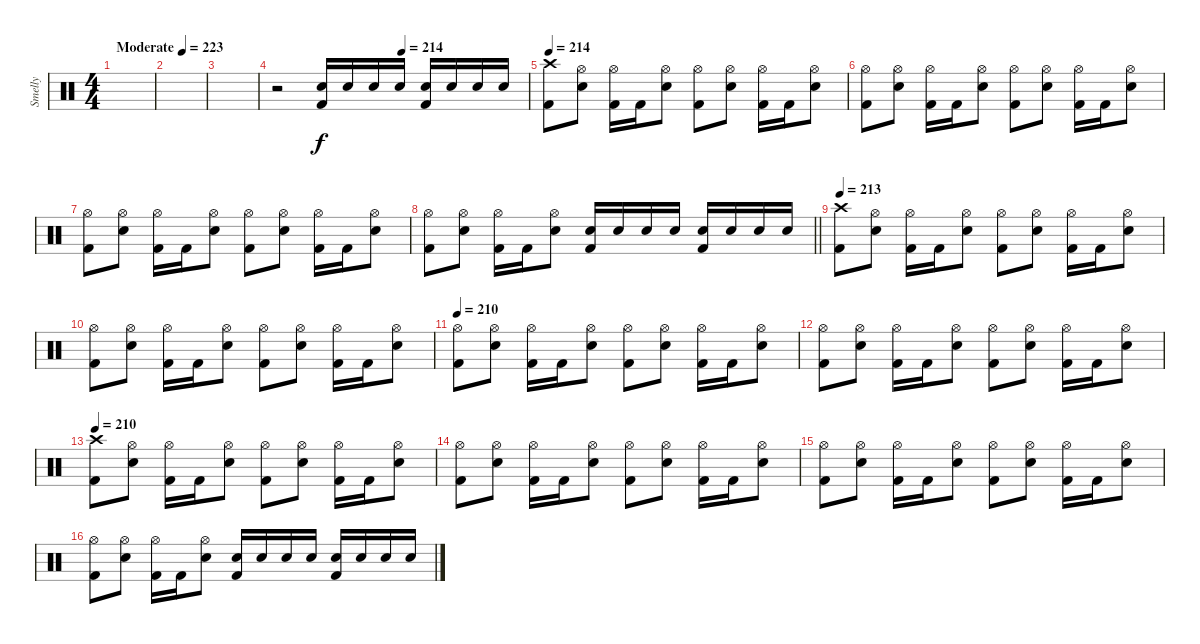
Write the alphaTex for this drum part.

\track ("Smelly" "Smelly") {instrument percussion}
\staff {score}
\articulation defaults
\ts (4 4)
\tempo (223 "Moderate")
\clef neutral
\ks c
|
|
|
\tempo (214 0.5)
r.2 ("Electric Snare (hit)" "Kick (hit) 2").16 "Electric Snare (hit)".16 "Electric Snare (hit)".16 "Electric Snare (hit)".16 ("Electric Snare (hit)" "Kick (hit) 2").16 "Electric Snare (hit)".16 "Electric Snare (hit)".16 "Electric Snare (hit)".16 |
\tempo 214
("Crash high (hit)" "Kick (hit) 2").8 ("Hi-Hat (open)" "Electric Snare (hit)").8 ("Hi-Hat (open)" "Kick (hit) 2").16 "Kick (hit) 2".16 ("Hi-Hat (open)" "Electric Snare (hit)").8 ("Hi-Hat (open)" "Kick (hit) 2").8 ("Hi-Hat (open)" "Electric Snare (hit)").8 ("Hi-Hat (open)" "Kick (hit) 2").16 "Kick (hit) 2".16 ("Hi-Hat (open)" "Electric Snare (hit)").8 |
("Hi-Hat (open)" "Kick (hit) 2").8 ("Hi-Hat (open)" "Electric Snare (hit)").8 ("Hi-Hat (open)" "Kick (hit) 2").16 "Kick (hit) 2".16 ("Hi-Hat (open)" "Electric Snare (hit)").8 ("Hi-Hat (open)" "Kick (hit) 2").8 ("Hi-Hat (open)" "Electric Snare (hit)").8 ("Hi-Hat (open)" "Kick (hit) 2").16 "Kick (hit) 2".16 ("Hi-Hat (open)" "Electric Snare (hit)").8 |
("Hi-Hat (open)" "Kick (hit) 2").8 ("Hi-Hat (open)" "Electric Snare (hit)").8 ("Hi-Hat (open)" "Kick (hit) 2").16 "Kick (hit) 2".16 ("Hi-Hat (open)" "Electric Snare (hit)").8 ("Hi-Hat (open)" "Kick (hit) 2").8 ("Hi-Hat (open)" "Electric Snare (hit)").8 ("Hi-Hat (open)" "Kick (hit) 2").16 "Kick (hit) 2".16 ("Hi-Hat (open)" "Electric Snare (hit)").8 |
\barLineRight lightlight
("Hi-Hat (open)" "Kick (hit) 2").8 ("Hi-Hat (open)" "Electric Snare (hit)").8 ("Hi-Hat (open)" "Kick (hit) 2").16 "Kick (hit) 2".16 ("Hi-Hat (open)" "Electric Snare (hit)").8 ("Electric Snare (hit)" "Kick (hit) 2").16 "Electric Snare (hit)".16 "Electric Snare (hit)".16 "Electric Snare (hit)".16 ("Electric Snare (hit)" "Kick (hit) 2").16 "Electric Snare (hit)".16 "Electric Snare (hit)".16 "Electric Snare (hit)".16 |
\section ("" "")
\tempo 213
("Crash high (hit)" "Kick (hit) 2").8 ("Hi-Hat (open)" "Electric Snare (hit)").8 ("Hi-Hat (open)" "Kick (hit) 2").16 "Kick (hit) 2".16 ("Hi-Hat (open)" "Electric Snare (hit)").8 ("Hi-Hat (open)" "Kick (hit) 2").8 ("Hi-Hat (open)" "Electric Snare (hit)").8 ("Hi-Hat (open)" "Kick (hit) 2").16 "Kick (hit) 2".16 ("Hi-Hat (open)" "Electric Snare (hit)").8 |
("Hi-Hat (open)" "Kick (hit) 2").8 ("Hi-Hat (open)" "Electric Snare (hit)").8 ("Hi-Hat (open)" "Kick (hit) 2").16 "Kick (hit) 2".16 ("Hi-Hat (open)" "Electric Snare (hit)").8 ("Hi-Hat (open)" "Kick (hit) 2").8 ("Hi-Hat (open)" "Electric Snare (hit)").8 ("Hi-Hat (open)" "Kick (hit) 2").16 "Kick (hit) 2".16 ("Hi-Hat (open)" "Electric Snare (hit)").8 |
\tempo 210
("Hi-Hat (open)" "Kick (hit) 2").8 ("Hi-Hat (open)" "Electric Snare (hit)").8 ("Hi-Hat (open)" "Kick (hit) 2").16 "Kick (hit) 2".16 ("Hi-Hat (open)" "Electric Snare (hit)").8 ("Hi-Hat (open)" "Kick (hit) 2").8 ("Hi-Hat (open)" "Electric Snare (hit)").8 ("Hi-Hat (open)" "Kick (hit) 2").16 "Kick (hit) 2".16 ("Hi-Hat (open)" "Electric Snare (hit)").8 |
("Hi-Hat (open)" "Kick (hit) 2").8 ("Hi-Hat (open)" "Electric Snare (hit)").8 ("Hi-Hat (open)" "Kick (hit) 2").16 "Kick (hit) 2".16 ("Hi-Hat (open)" "Electric Snare (hit)").8 ("Hi-Hat (open)" "Kick (hit) 2").8 ("Hi-Hat (open)" "Electric Snare (hit)").8 ("Hi-Hat (open)" "Kick (hit) 2").16 "Kick (hit) 2".16 ("Hi-Hat (open)" "Electric Snare (hit)").8 |
\tempo 210
("Crash high (hit)" "Kick (hit) 2").8 ("Hi-Hat (open)" "Electric Snare (hit)").8 ("Hi-Hat (open)" "Kick (hit) 2").16 "Kick (hit) 2".16 ("Hi-Hat (open)" "Electric Snare (hit)").8 ("Hi-Hat (open)" "Kick (hit) 2").8 ("Hi-Hat (open)" "Electric Snare (hit)").8 ("Hi-Hat (open)" "Kick (hit) 2").16 "Kick (hit) 2".16 ("Hi-Hat (open)" "Electric Snare (hit)").8 |
("Hi-Hat (open)" "Kick (hit) 2").8 ("Hi-Hat (open)" "Electric Snare (hit)").8 ("Hi-Hat (open)" "Kick (hit) 2").16 "Kick (hit) 2".16 ("Hi-Hat (open)" "Electric Snare (hit)").8 ("Hi-Hat (open)" "Kick (hit) 2").8 ("Hi-Hat (open)" "Electric Snare (hit)").8 ("Hi-Hat (open)" "Kick (hit) 2").16 "Kick (hit) 2".16 ("Hi-Hat (open)" "Electric Snare (hit)").8 |
("Hi-Hat (open)" "Kick (hit) 2").8 ("Hi-Hat (open)" "Electric Snare (hit)").8 ("Hi-Hat (open)" "Kick (hit) 2").16 "Kick (hit) 2".16 ("Hi-Hat (open)" "Electric Snare (hit)").8 ("Hi-Hat (open)" "Kick (hit) 2").8 ("Hi-Hat (open)" "Electric Snare (hit)").8 ("Hi-Hat (open)" "Kick (hit) 2").16 "Kick (hit) 2".16 ("Hi-Hat (open)" "Electric Snare (hit)").8 |
("Hi-Hat (open)" "Kick (hit) 2").8 ("Hi-Hat (open)" "Electric Snare (hit)").8 ("Hi-Hat (open)" "Kick (hit) 2").16 "Kick (hit) 2".16 ("Hi-Hat (open)" "Electric Snare (hit)").8 ("Electric Snare (hit)" "Kick (hit) 2").16 "Electric Snare (hit)".16 "Electric Snare (hit)".16 "Electric Snare (hit)".16 ("Electric Snare (hit)" "Kick (hit) 2").16 "Electric Snare (hit)".16 "Electric Snare (hit)".16 "Electric Snare (hit)".16
